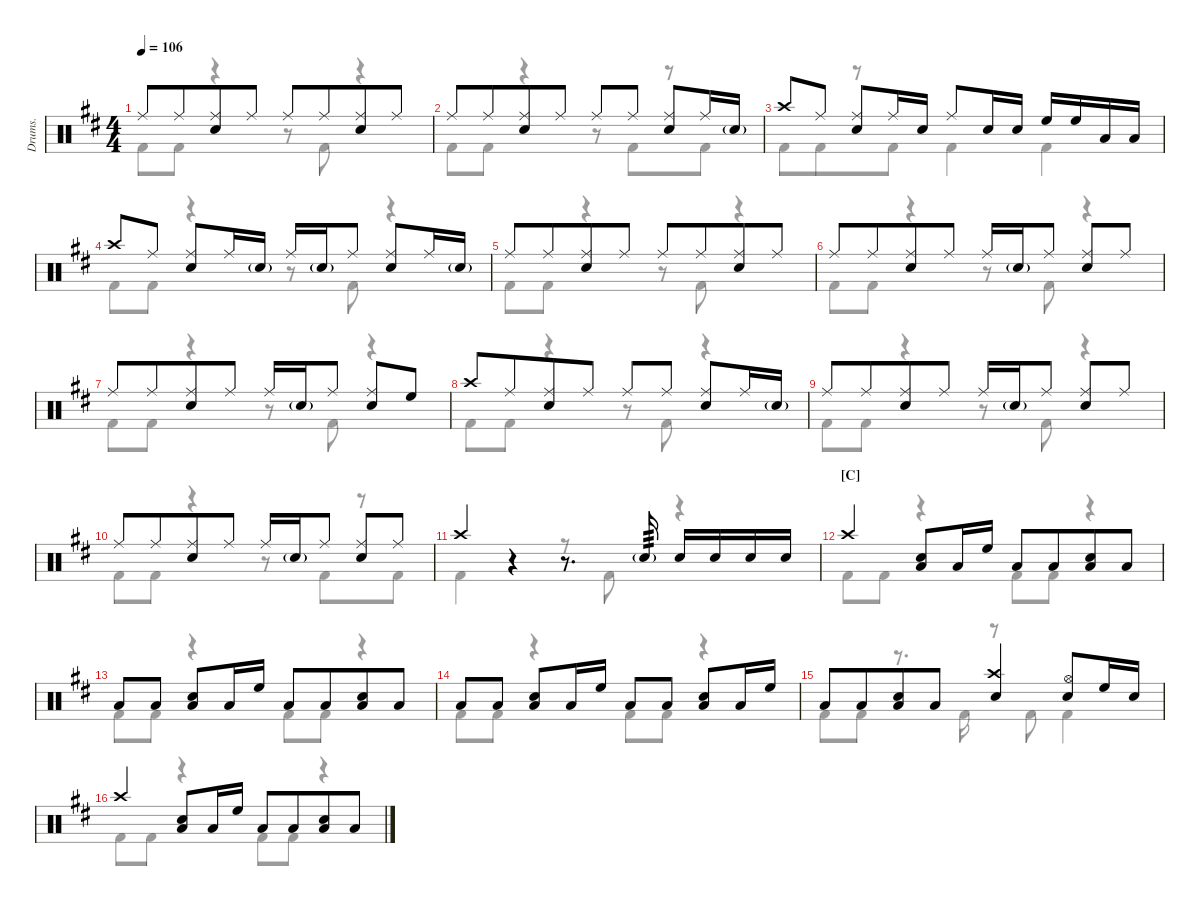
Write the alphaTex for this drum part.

\defaultSystemsLayout 4
\hideDynamics
\track ("Drumkit" "Drums.") {defaultSystemsLayout 4 instrument percussion}
\staff {score}
\articulation defaults
\voice
\ts (4 4)
\tempo 106
\clef neutral
\ks d "Ride (middle)"{acc forcenatural}.8{dy mf beam merge} "Ride (middle)"{acc forcenatural}.8{beam merge}
("Ride (middle)"{acc forcenatural} "Snare (hit) 2"{acc forcenatural}).8 "Ride (middle)"{acc forcenatural}.8 "Ride (middle)"{acc forcenatural}.8{beam merge} "Ride (middle)"{acc forcenatural}.8{beam merge} ("Ride (middle)"{acc forcenatural} "Snare (hit) 2"{acc forcenatural}).8 "Ride (middle)"{acc forcenatural}.8 |
"Ride (middle)"{acc forcenatural}.8{beam merge} "Ride (middle)"{acc forcenatural}.8{beam merge} ("Ride (middle)"{acc forcenatural} "Snare (hit) 2"{acc forcenatural}).8 "Ride (middle)"{acc forcenatural}.8 "Ride (middle)"{acc forcenatural}.8 "Ride (middle)"{acc forcenatural}.8 ("Ride (middle)"{acc forcenatural} "Snare (hit) 2"{acc forcenatural}).8 "Ride (middle)"{acc forcenatural}.16 "Snare (hit) 2"{g acc forcenatural}.16 |
"Crash high (hit)"{acc forcenatural}.8 "Ride (middle)"{acc forcenatural}.8 ("Ride (middle)"{acc forcenatural} "Snare (hit) 2"{acc forcenatural}).8 "Ride (middle)"{acc forcenatural}.16 "Snare (hit) 2"{acc forcenatural}.16 "Ride (middle)"{acc forcenatural}.8 "Snare (hit) 2"{acc forcenatural}.16 "Snare (hit) 2"{acc forcenatural}.16 "High Floor Tom (hit)"{acc forcenatural}.16 "High Floor Tom (hit)"{acc forcenatural}.16 "Low Tom (hit)"{acc forcenatural}.16 "Low Tom (hit)"{acc forcenatural}.16 |
"Crash high (hit)"{acc forcenatural}.8{beam merge} "Ride (middle)"{acc forcenatural}.8{beam split} ("Ride (middle)"{acc forcenatural} "Snare (hit) 2"{acc forcenatural}).8 "Ride (middle)"{acc forcenatural}.16 "Snare (hit) 2"{g acc forcenatural}.16 "Ride (middle)"{acc forcenatural}.16{beam merge} "Snare (hit) 2"{g acc forcenatural}.16 "Ride (middle)"{acc forcenatural}.8{beam split} ("Ride (middle)"{acc forcenatural} "Snare (hit) 2"{acc forcenatural}).8 "Ride (middle)"{acc forcenatural}.16 "Snare (hit) 2"{g acc forcenatural}.16 |
"Ride (middle)"{acc forcenatural}.8{beam merge} "Ride (middle)"{acc forcenatural}.8{beam merge} ("Ride (middle)"{acc forcenatural} "Snare (hit) 2"{acc forcenatural}).8 "Ride (middle)"{acc forcenatural}.8 "Ride (middle)"{acc forcenatural}.8{beam merge} "Ride (middle)"{acc forcenatural}.8{beam merge} ("Ride (middle)"{acc forcenatural} "Snare (hit) 2"{acc forcenatural}).8 "Ride (middle)"{acc forcenatural}.8 |
"Ride (middle)"{acc forcenatural}.8{beam merge} "Ride (middle)"{acc forcenatural}.8{beam merge} ("Ride (middle)"{acc forcenatural} "Snare (hit) 2"{acc forcenatural}).8 "Ride (middle)"{acc forcenatural}.8 "Ride (middle)"{acc forcenatural}.16{beam merge} "Snare (hit) 2"{g acc forcenatural}.16 "Ride (middle)"{acc forcenatural}.8{beam split} ("Ride (middle)"{acc forcenatural} "Snare (hit) 2"{acc forcenatural}).8 "Ride (middle)"{acc forcenatural}.8 |
"Ride (middle)"{acc forcenatural}.8{beam merge} "Ride (middle)"{acc forcenatural}.8{beam merge} ("Ride (middle)"{acc forcenatural} "Snare (hit) 2"{acc forcenatural}).8 "Ride (middle)"{acc forcenatural}.8 "Ride (middle)"{acc forcenatural}.16{beam merge} "Snare (hit) 2"{g acc forcenatural}.16 "Ride (middle)"{acc forcenatural}.8{beam split} ("Ride (middle)"{acc forcenatural} "Snare (hit) 2"{acc forcenatural}).8 "High Floor Tom (hit)"{acc forcenatural}.8 |
\scale
1.01877 "Crash high (hit)"{acc forcenatural}.8{beam merge} "Ride (middle)"{acc forcenatural}.8{beam merge} ("Ride (middle)"{acc forcenatural} "Snare (hit) 2"{acc forcenatural}).8 "Ride (middle)"{acc forcenatural}.8 "Ride (middle)"{acc forcenatural}.8{beam merge} "Ride (middle)"{acc forcenatural}.8{beam split} ("Ride (middle)"{acc forcenatural} "Snare (hit) 2"{acc forcenatural}).8 "Ride (middle)"{acc forcenatural}.16 "Snare (hit) 2"{g acc forcenatural}.16 |
\scale
0.899089 "Ride (middle)"{acc forcenatural}.8{beam merge} "Ride (middle)"{acc forcenatural}.8{beam merge} ("Ride (middle)"{acc forcenatural} "Snare (hit) 2"{acc forcenatural}).8 "Ride (middle)"{acc forcenatural}.8 "Ride (middle)"{acc forcenatural}.16{beam merge} "Snare (hit) 2"{g acc forcenatural}.16 "Ride (middle)"{acc forcenatural}.8{beam split} ("Ride (middle)"{acc forcenatural} "Snare (hit) 2"{acc forcenatural}).8 "Ride (middle)"{acc forcenatural}.8 |
\scale
1.12515 "Ride (middle)"{acc forcenatural}.8{beam merge} "Ride (middle)"{acc forcenatural}.8{beam merge} ("Ride (middle)"{acc forcenatural} "Snare (hit) 2"{acc forcenatural}).8 "Ride (middle)"{acc forcenatural}.8 "Ride (middle)"{acc forcenatural}.16 "Snare (hit) 2"{g acc forcenatural}.16 "Ride (middle)"{acc forcenatural}.8 ("Ride (middle)"{acc forcenatural} "Snare (hit) 2"{acc forcenatural}).8 "Ride (middle)"{acc forcenatural}.8 |
\scale
0.956997 "Crash high (hit)"{acc forcenatural}.4 r.4 r.8{d} "Snare (hit) 2"{g acc forcenatural}.16{tp 3} "Snare (hit) 2"{acc forcenatural}.16 "Snare (hit) 2"{acc forcenatural}.16 "Snare (hit) 2"{acc forcenatural}.16 "Snare (hit) 2"{acc forcenatural}.16 |
\section ("C" "")
"Crash high (hit)"{acc forcenatural}.4 ("Snare (hit) 2"{acc forcenatural} "Low Tom (hit)"{acc forcenatural}).8 "Low Tom (hit)"{acc forcenatural}.16 "High Floor Tom (hit)"{acc forcenatural}.16 "Low Tom (hit)"{acc forcenatural}.8 "Low Tom (hit)"{acc forcenatural}.8{beam merge} ("Low Tom (hit)"{acc forcenatural} "Snare (hit) 2"{acc forcenatural}).8 "Low Tom (hit)"{acc forcenatural}.8 |
"Low Tom (hit)"{acc forcenatural}.8 "Low Tom (hit)"{acc forcenatural}.8 ("Low Tom (hit)"{acc forcenatural} "Snare (hit) 2"{acc forcenatural}).8 "Low Tom (hit)"{acc forcenatural}.16 "High Floor Tom (hit)"{acc forcenatural}.16 "Low Tom (hit)"{acc forcenatural}.8 "Low Tom (hit)"{acc forcenatural}.8{beam merge} ("Low Tom (hit)"{acc forcenatural} "Snare (hit) 2"{acc forcenatural}).8 "Low Tom (hit)"{acc forcenatural}.8 |
"Low Tom (hit)"{acc forcenatural}.8 "Low Tom (hit)"{acc forcenatural}.8 ("Low Tom (hit)"{acc forcenatural} "Snare (hit) 2"{acc forcenatural}).8 "Low Tom (hit)"{acc forcenatural}.16 "High Floor Tom (hit)"{acc forcenatural}.16 "Low Tom (hit)"{acc forcenatural}.8 "Low Tom (hit)"{acc forcenatural}.8 ("Low Tom (hit)"{acc forcenatural} "Snare (hit) 2"{acc forcenatural}).8 "Low Tom (hit)"{acc forcenatural}.16 "High Floor Tom (hit)"{acc forcenatural}.16 |
"Low Tom (hit)"{acc forcenatural}.8 "Low Tom (hit)"{acc forcenatural}.8{beam merge} ("Low Tom (hit)"{acc forcenatural} "Snare (hit) 2"{acc forcenatural}).8 "Low Tom (hit)"{acc forcenatural}.8 ("Snare (hit) 2"{acc forcenatural} "Crash high (hit)"{acc forcenatural}).4 ("Hi-Hat (open)"{acc forcenatural} "Snare (hit) 2"{acc forcenatural}).8 "High Floor Tom (hit)"{acc forcenatural}.16 "Snare (hit) 2"{acc forcenatural}.16 |
"Crash high (hit)"{acc forcenatural}.4 ("Snare (hit) 2"{acc forcenatural} "Low Tom (hit)"{acc forcenatural}).8 "Low Tom (hit)"{acc forcenatural}.16 "High Floor Tom (hit)"{acc forcenatural}.16 "Low Tom (hit)"{acc forcenatural}.8 "Low Tom (hit)"{acc forcenatural}.8{beam merge} ("Low Tom (hit)"{acc forcenatural} "Snare (hit) 2"{acc forcenatural}).8 "Low Tom (hit)"{acc forcenatural}.8
\voice
\clef neutral
\ottava regular
\simile none
\ks d "Kick (hit) 2"{acc forcenatural}.8{dy mf} "Kick (hit) 2"{acc forcenatural}.8
r.4 r.8 "Kick (hit) 2"{acc forcenatural}.8{beam merge} r.4{beam merge} |
"Kick (hit) 2"{acc forcenatural}.8 "Kick (hit) 2"{acc forcenatural}.8 r.4 r.8 "Kick (hit) 2"{acc forcenatural}.8{beam merge} r.8{beam merge} "Kick (hit) 2"{acc forcenatural}.8{beam merge} |
"Kick (hit) 2"{acc forcenatural}.8{beam merge} "Kick (hit) 2"{acc forcenatural}.8{beam merge} r.8{beam merge} "Kick (hit) 2"{acc forcenatural}.8 "Kick (hit) 2"{acc forcenatural}.4{beam merge} "Kick (hit) 2"{acc forcenatural}.4{beam merge} |
"Kick (hit) 2"{acc forcenatural}.8 "Kick (hit) 2"{acc forcenatural}.8 r.4 r.8 "Kick (hit) 2"{acc forcenatural}.8{beam merge} r.4{beam merge} |
"Kick (hit) 2"{acc forcenatural}.8 "Kick (hit) 2"{acc forcenatural}.8 r.4 r.8 "Kick (hit) 2"{acc forcenatural}.8{beam merge} r.4{beam merge} |
"Kick (hit) 2"{acc forcenatural}.8 "Kick (hit) 2"{acc forcenatural}.8 r.4 r.8 "Kick (hit) 2"{acc forcenatural}.8{beam merge} r.4{beam merge} |
"Kick (hit) 2"{acc forcenatural}.8 "Kick (hit) 2"{acc forcenatural}.8 r.4 r.8 "Kick (hit) 2"{acc forcenatural}.8{beam merge} r.4{beam merge} |
\scale
1.01877 "Kick (hit) 2"{acc forcenatural}.8 "Kick (hit) 2"{acc forcenatural}.8 r.4 r.8 "Kick (hit) 2"{acc forcenatural}.8{beam merge} r.4{beam merge} |
\scale
0.899089 "Kick (hit) 2"{acc forcenatural}.8 "Kick (hit) 2"{acc forcenatural}.8 r.4 r.8 "Kick (hit) 2"{acc forcenatural}.8{beam merge} r.4{beam merge} |
\scale
1.12515 "Kick (hit) 2"{acc forcenatural}.8 "Kick (hit) 2"{acc forcenatural}.8 r.4 r.8 "Kick (hit) 2"{acc forcenatural}.8{beam merge} r.8{beam merge} "Kick (hit) 2"{acc forcenatural}.8{beam merge} |
\scale
0.956997 "Kick (hit) 2"{acc forcenatural}.4 r.4 r.8 "Kick (hit) 2"{acc forcenatural}.8 r.4 |
"Kick (hit) 2"{acc forcenatural}.8 "Kick (hit) 2"{acc forcenatural}.8 r.4 "Kick (hit) 2"{acc forcenatural}.8 "Kick (hit) 2"{acc forcenatural}.8 r.4 |
"Kick (hit) 2"{acc forcenatural}.8 "Kick (hit) 2"{acc forcenatural}.8 r.4 "Kick (hit) 2"{acc forcenatural}.8 "Kick (hit) 2"{acc forcenatural}.8 r.4 |
"Kick (hit) 2"{acc forcenatural}.8 "Kick (hit) 2"{acc forcenatural}.8 r.4 "Kick (hit) 2"{acc forcenatural}.8 "Kick (hit) 2"{acc forcenatural}.8 r.4 |
"Kick (hit) 2"{acc forcenatural}.8 "Kick (hit) 2"{acc forcenatural}.8 r.8{d} "Kick (hit) 2"{acc forcenatural}.16 r.8 "Kick (hit) 2"{acc forcenatural}.8 "Kick (hit) 2"{acc forcenatural}.4 |
"Kick (hit) 2"{acc forcenatural}.8 "Kick (hit) 2"{acc forcenatural}.8 r.4 "Kick (hit) 2"{acc forcenatural}.8 "Kick (hit) 2"{acc forcenatural}.8 r.4
